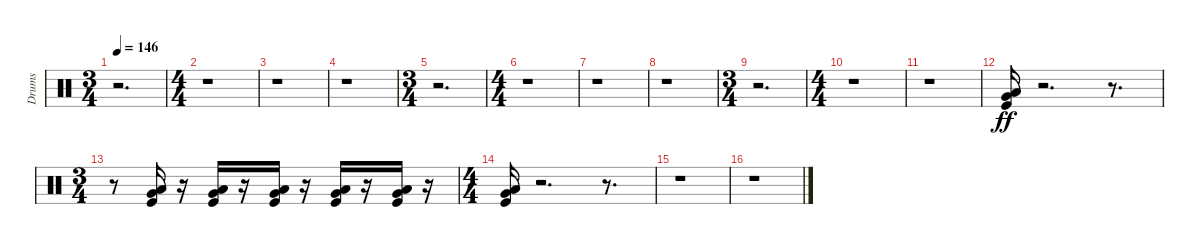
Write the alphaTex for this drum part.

\track ("Drums" "Drums") {instrument percussion}
\staff {score}
\articulation defaults
\ts (3 4)
\tempo 146
\clef neutral
\ks c
r.2{d dy ff} |
\ts (4 4)
r.1 |
r.1 |
r.1 |
\ts (3 4)
r.2{d} |
\ts (4 4)
r.1 |
r.1 |
r.1 |
\ts (3 4)
r.2{d} |
\ts (4 4)
r.1 |
r.1 |
("Very Low Tom (hit)" "Low Floor Tom (hit)" "Kick (hit)").16 r.2{d} r.8{d} |
\ts (3 4)
r.8 ("Very Low Tom (hit)" "Low Floor Tom (hit)" "Kick (hit)").16 r.16 ("Very Low Tom (hit)" "Low Floor Tom (hit)" "Kick (hit)").16 r.16 ("Very Low Tom (hit)" "Low Floor Tom (hit)" "Kick (hit)").16 r.16 ("Very Low Tom (hit)" "Low Floor Tom (hit)" "Kick (hit)").16 r.16 ("Very Low Tom (hit)" "Low Floor Tom (hit)" "Kick (hit)").16 r.16 |
\ts (4 4)
("Very Low Tom (hit)" "Low Floor Tom (hit)" "Kick (hit)").16 r.2{d} r.8{d} |
r.1 |
r.1
